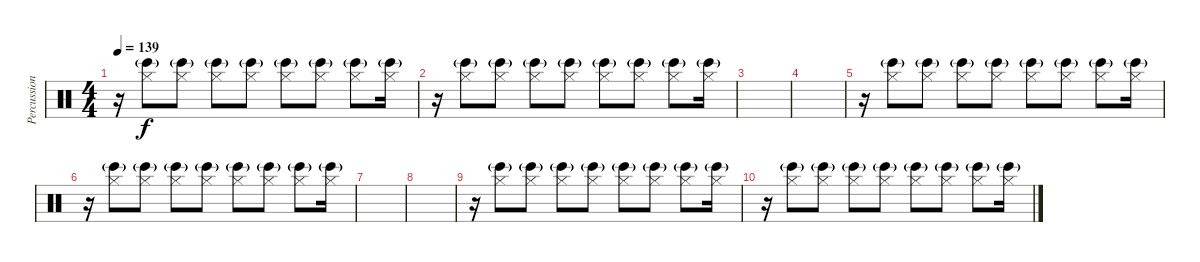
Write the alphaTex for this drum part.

\track ("Percussion" "Percussion") {instrument percussion}
\staff {score}
\articulation defaults
\ts (4 4)
\tempo 139
\clef neutral
\ks c
r.16{dy f volume 16} ("Hi-Hat (closed)" "Bongo High (hit)"{g}).8{balance 16} ("Hi-Hat (closed)" "Bongo High (hit)"{g}).8{balance 0} ("Hi-Hat (closed)" "Bongo High (hit)"{g}).8{balance 16} ("Hi-Hat (closed)" "Bongo High (hit)"{g}).8{balance 0} ("Hi-Hat (closed)" "Bongo High (hit)"{g}).8{balance 16} ("Hi-Hat (closed)" "Bongo High (hit)"{g}).8{balance 0} ("Hi-Hat (closed)" "Bongo High (hit)"{g}).8{balance 16} ("Hi-Hat (closed)" "Bongo High (hit)"{g}).16{balance 0} |
r.16{volume 0} ("Hi-Hat (closed)" "Bongo High (hit)"{g}).8{balance 16} ("Hi-Hat (closed)" "Bongo High (hit)"{g}).8{balance 0} ("Hi-Hat (closed)" "Bongo High (hit)"{g}).8{balance 16} ("Hi-Hat (closed)" "Bongo High (hit)"{g}).8{balance 0} ("Hi-Hat (closed)" "Bongo High (hit)"{g}).8{balance 16} ("Hi-Hat (closed)" "Bongo High (hit)"{g}).8{balance 0} ("Hi-Hat (closed)" "Bongo High (hit)"{g}).8{balance 16} ("Hi-Hat (closed)" "Bongo High (hit)"{g}).16{balance 0} |
|
|
r.16{volume 16} ("Hi-Hat (closed)" "Bongo High (hit)"{g}).8{balance 16} ("Hi-Hat (closed)" "Bongo High (hit)"{g}).8{balance 0} ("Hi-Hat (closed)" "Bongo High (hit)"{g}).8{balance 16} ("Hi-Hat (closed)" "Bongo High (hit)"{g}).8{balance 0} ("Hi-Hat (closed)" "Bongo High (hit)"{g}).8{balance 16} ("Hi-Hat (closed)" "Bongo High (hit)"{g}).8{balance 0} ("Hi-Hat (closed)" "Bongo High (hit)"{g}).8{balance 16} ("Hi-Hat (closed)" "Bongo High (hit)"{g}).16{balance 0} |
r.16{volume 0} ("Hi-Hat (closed)" "Bongo High (hit)"{g}).8{balance 16} ("Hi-Hat (closed)" "Bongo High (hit)"{g}).8{balance 0} ("Hi-Hat (closed)" "Bongo High (hit)"{g}).8{balance 16} ("Hi-Hat (closed)" "Bongo High (hit)"{g}).8{balance 0} ("Hi-Hat (closed)" "Bongo High (hit)"{g}).8{balance 16} ("Hi-Hat (closed)" "Bongo High (hit)"{g}).8{balance 0} ("Hi-Hat (closed)" "Bongo High (hit)"{g}).8{balance 16} ("Hi-Hat (closed)" "Bongo High (hit)"{g}).16{balance 0} |
|
|
r.16{volume 16} ("Hi-Hat (closed)" "Bongo High (hit)"{g}).8{balance 16} ("Hi-Hat (closed)" "Bongo High (hit)"{g}).8{balance 0} ("Hi-Hat (closed)" "Bongo High (hit)"{g}).8{balance 16} ("Hi-Hat (closed)" "Bongo High (hit)"{g}).8{balance 0} ("Hi-Hat (closed)" "Bongo High (hit)"{g}).8{balance 16} ("Hi-Hat (closed)" "Bongo High (hit)"{g}).8{balance 0} ("Hi-Hat (closed)" "Bongo High (hit)"{g}).8{balance 16} ("Hi-Hat (closed)" "Bongo High (hit)"{g}).16{balance 0} |
r.16{volume 0} ("Hi-Hat (closed)" "Bongo High (hit)"{g}).8{balance 16} ("Hi-Hat (closed)" "Bongo High (hit)"{g}).8{balance 0} ("Hi-Hat (closed)" "Bongo High (hit)"{g}).8{balance 16} ("Hi-Hat (closed)" "Bongo High (hit)"{g}).8{balance 0} ("Hi-Hat (closed)" "Bongo High (hit)"{g}).8{balance 16} ("Hi-Hat (closed)" "Bongo High (hit)"{g}).8{balance 0} ("Hi-Hat (closed)" "Bongo High (hit)"{g}).8{balance 16} ("Hi-Hat (closed)" "Bongo High (hit)"{g}).16{balance 0}
